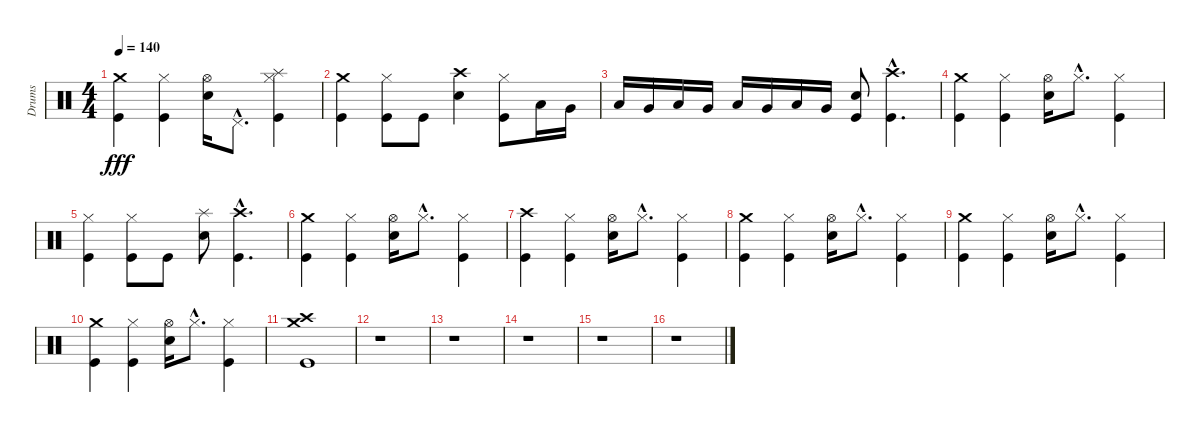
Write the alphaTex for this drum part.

\track ("Drums" "Drums") {instrument percussion}
\staff {score}
\articulation defaults
\ts (4 4)
\tempo 140
\clef neutral
\ks c
("Crash medium (hit)" "Kick (hit)").4{dy fff} ("Hi-Hat (closed)" "Kick (hit)").4 ("Hi-Hat (open)" "Electric Snare (hit)").16 "Pedal Hi-Hat (hit)"{hac}.8{d} ("Hi-Hat (closed)" "Splash (hit)" "Kick (hit)").4 |
("Crash medium (hit)" "Kick (hit)").4 ("Hi-Hat (closed)" "Kick (hit)").8 "Kick (hit)".8 ("Crash high (hit)" "Electric Snare (hit)").4 ("Hi-Hat (closed)" "Kick (hit)").8 "Low Tom (hit)".16 "Very Low Tom (hit)".16 |
"Low Tom (hit)".16 "Very Low Tom (hit)".16 "Low Tom (hit)".16 "Very Low Tom (hit)".16 "Low Tom (hit)".16 "Very Low Tom (hit)".16 "Low Tom (hit)".16 "Very Low Tom (hit)".16 ("Electric Snare (hit)" "Kick (hit)").8 ("Crash high (hit)"{hac} "Kick (hit)"{hac}).4{d} |
("Crash medium (hit)" "Kick (hit)").4 ("Hi-Hat (closed)" "Kick (hit)").4 ("Hi-Hat (open)" "Electric Snare (hit)").16 "Hi-Hat (closed)"{hac}.8{d} ("Hi-Hat (closed)" "Kick (hit)").4 |
("Hi-Hat (closed)" "Kick (hit)").4 ("Hi-Hat (closed)" "Kick (hit)").8 "Kick (hit)".8 ("Splash (hit)" "Electric Snare (hit)").8 ("Crash high (hit)"{hac} "Kick (hit)"{hac}).4{d} |
("Crash medium (hit)" "Kick (hit)").4 ("Hi-Hat (closed)" "Kick (hit)").4 ("Hi-Hat (open)" "Electric Snare (hit)").16 "Hi-Hat (closed)"{hac}.8{d} ("Hi-Hat (closed)" "Kick (hit)").4 |
("Crash high (hit)" "Kick (hit)").4 ("Hi-Hat (closed)" "Kick (hit)").4 ("Hi-Hat (open)" "Electric Snare (hit)").16 "Hi-Hat (closed)"{hac}.8{d} ("Hi-Hat (closed)" "Kick (hit)").4 |
("Crash medium (hit)" "Kick (hit)").4 ("Hi-Hat (closed)" "Kick (hit)").4 ("Hi-Hat (open)" "Electric Snare (hit)").16 "Hi-Hat (closed)"{hac}.8{d} ("Hi-Hat (closed)" "Kick (hit)").4 |
("Crash medium (hit)" "Kick (hit)").4 ("Hi-Hat (closed)" "Kick (hit)").4 ("Hi-Hat (open)" "Electric Snare (hit)").16 "Hi-Hat (closed)"{hac}.8{d} ("Hi-Hat (closed)" "Kick (hit)").4 |
("Crash medium (hit)" "Kick (hit)").4 ("Hi-Hat (closed)" "Kick (hit)").4 ("Hi-Hat (open)" "Electric Snare (hit)").16 "Hi-Hat (closed)"{hac}.8{d} ("Hi-Hat (closed)" "Kick (hit)").4 |
("Crash medium (hit)" "Crash high (hit)" "Kick (hit)").1 |
r.1 |
r.1 |
r.1 |
r.1 |
r.1
